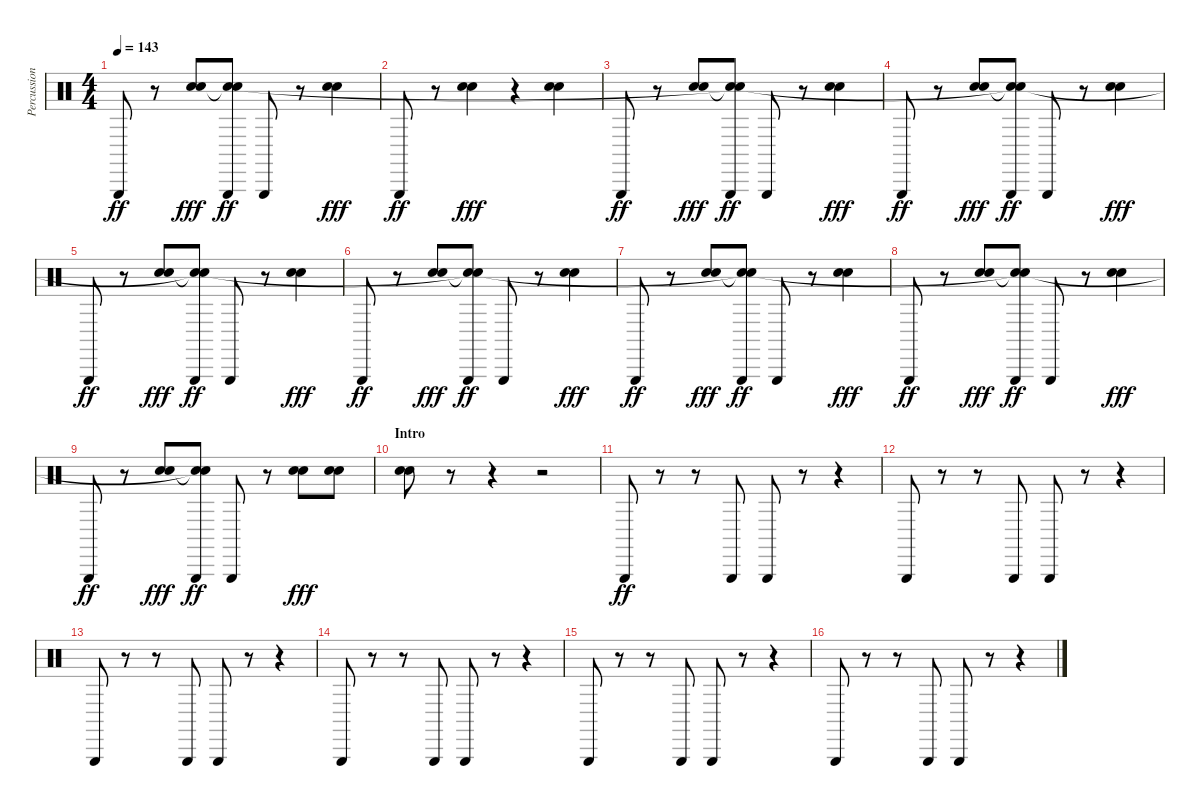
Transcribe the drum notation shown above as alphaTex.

\track ("Percussion" "Percussion") {instrument percussion}
\staff {score}
\articulation defaults
\ts (4 4)
\tempo 143
\clef neutral
\ks c "Triangle (hit)".8{dy ff}
r.8 ("Hand Clap (hit)" "Hand Clap (hit)").8{dy fff} ("Triangle (hit)" "Snare (hit)"{t} "Snare (hit)"{t}).8{dy ff} "Triangle (hit)".8 r.8 ("Hand Clap (hit)" "Hand Clap (hit)").4{dy fff} |
"Triangle (hit)".8{dy ff} r.8 ("Hand Clap (hit)" "Hand Clap (hit)").4{dy fff} r.4 ("Hand Clap (hit)" "Hand Clap (hit)").4 |
"Triangle (hit)".8{dy ff} r.8 ("Hand Clap (hit)" "Hand Clap (hit)").8{dy fff} ("Triangle (hit)" "Snare (hit)"{t} "Snare (hit)"{t}).8{dy ff} "Triangle (hit)".8 r.8 ("Hand Clap (hit)" "Hand Clap (hit)").4{dy fff} |
"Triangle (hit)".8{dy ff} r.8 ("Hand Clap (hit)" "Hand Clap (hit)").8{dy fff} ("Triangle (hit)" "Snare (hit)"{t} "Snare (hit)"{t}).8{dy ff} "Triangle (hit)".8 r.8 ("Hand Clap (hit)" "Hand Clap (hit)").4{dy fff} |
"Triangle (hit)".8{dy ff} r.8 ("Hand Clap (hit)" "Hand Clap (hit)").8{dy fff} ("Triangle (hit)" "Snare (hit)"{t} "Snare (hit)"{t}).8{dy ff} "Triangle (hit)".8 r.8 ("Hand Clap (hit)" "Hand Clap (hit)").4{dy fff} |
"Triangle (hit)".8{dy ff} r.8 ("Hand Clap (hit)" "Hand Clap (hit)").8{dy fff} ("Triangle (hit)" "Snare (hit)"{t} "Snare (hit)"{t}).8{dy ff} "Triangle (hit)".8 r.8 ("Hand Clap (hit)" "Hand Clap (hit)").4{dy fff} |
"Triangle (hit)".8{dy ff} r.8 ("Hand Clap (hit)" "Hand Clap (hit)").8{dy fff} ("Triangle (hit)" "Snare (hit)"{t} "Snare (hit)"{t}).8{dy ff} "Triangle (hit)".8 r.8 ("Hand Clap (hit)" "Hand Clap (hit)").4{dy fff} |
"Triangle (hit)".8{dy ff} r.8 ("Hand Clap (hit)" "Hand Clap (hit)").8{dy fff} ("Triangle (hit)" "Snare (hit)"{t} "Snare (hit)"{t}).8{dy ff} "Triangle (hit)".8 r.8 ("Hand Clap (hit)" "Hand Clap (hit)").4{dy fff} |
"Triangle (hit)".8{dy ff} r.8 ("Hand Clap (hit)" "Hand Clap (hit)").8{dy fff} ("Triangle (hit)" "Snare (hit)"{t} "Snare (hit)"{t}).8{dy ff} "Triangle (hit)".8 r.8 ("Hand Clap (hit)" "Hand Clap (hit)").8{dy fff} ("Hand Clap (hit)" "Hand Clap (hit)").8 |
\section ("" "Intro")
("Hand Clap (hit)" "Hand Clap (hit)").8 r.8 r.4 r.2 |
"Triangle (hit)".8{dy ff} r.8 r.8 "Triangle (hit)".8 "Triangle (hit)".8 r.8 r.4 |
"Triangle (hit)".8 r.8 r.8 "Triangle (hit)".8 "Triangle (hit)".8 r.8 r.4 |
"Triangle (hit)".8 r.8 r.8 "Triangle (hit)".8 "Triangle (hit)".8 r.8 r.4 |
"Triangle (hit)".8 r.8 r.8 "Triangle (hit)".8 "Triangle (hit)".8 r.8 r.4 |
"Triangle (hit)".8 r.8 r.8 "Triangle (hit)".8 "Triangle (hit)".8 r.8 r.4 |
"Triangle (hit)".8 r.8 r.8 "Triangle (hit)".8 "Triangle (hit)".8 r.8 r.4
